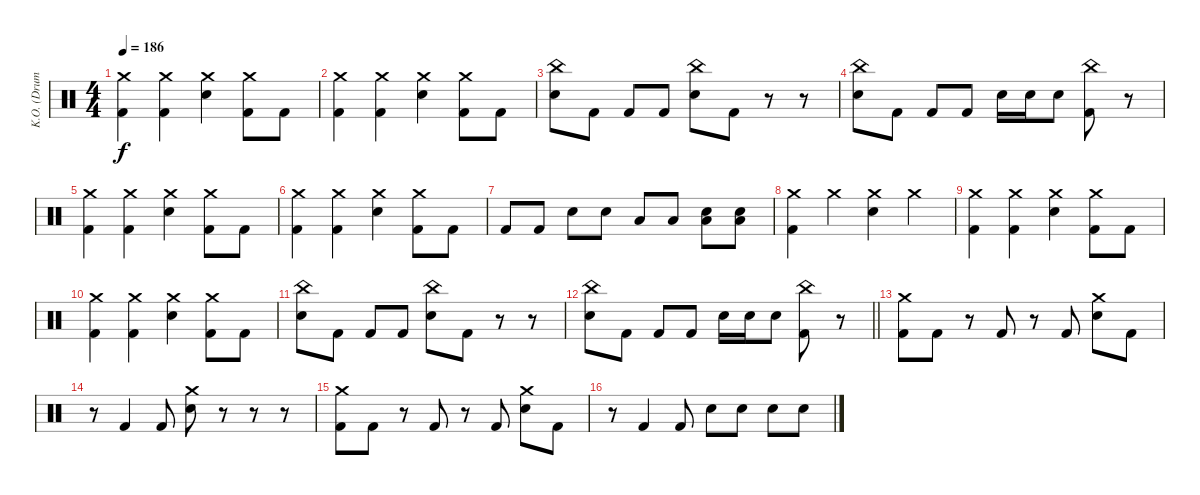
\track ("K.O. (Drums)" "K.O. (Drum") {instrument percussion}
\staff {score}
\articulation defaults
\ts (4 4)
\tempo 186
\clef neutral
\ks c
("Crash medium (hit)" "Kick (hit) 2").4{dy f} ("Crash medium (hit)" "Kick (hit) 2").4 ("Crash medium (hit)" "Electric Snare (hit)").4 ("Crash medium (hit)" "Kick (hit) 2").8 "Kick (hit) 2".8 |
("Crash medium (hit)" "Kick (hit) 2").4 ("Crash medium (hit)" "Kick (hit) 2").4 ("Crash medium (hit)" "Electric Snare (hit)").4 ("Crash medium (hit)" "Kick (hit) 2").8 "Kick (hit) 2".8 |
("China (hit)" "Electric Snare (hit)").8 "Kick (hit) 2".8 "Kick (hit) 2".8 "Kick (hit) 2".8 ("China (hit)" "Electric Snare (hit)").8 "Kick (hit) 2".8 r.8 r.8 |
("China (hit)" "Electric Snare (hit)").8 "Kick (hit) 2".8 "Kick (hit) 2".8 "Kick (hit) 2".8 "Electric Snare (hit)".16 "Electric Snare (hit)".16 "Electric Snare (hit)".8 ("China (hit)" "Kick (hit) 2").8 r.8 |
("Crash medium (hit)" "Kick (hit) 2").4 ("Crash medium (hit)" "Kick (hit) 2").4 ("Crash medium (hit)" "Electric Snare (hit)").4 ("Crash medium (hit)" "Kick (hit) 2").8 "Kick (hit) 2".8 |
("Crash medium (hit)" "Kick (hit) 2").4 ("Crash medium (hit)" "Kick (hit) 2").4 ("Crash medium (hit)" "Electric Snare (hit)").4 ("Crash medium (hit)" "Kick (hit) 2").8 "Kick (hit) 2".8 |
"Kick (hit) 2".8 "Kick (hit) 2".8 "Electric Snare (hit)".8 "Electric Snare (hit)".8 "Low Tom (hit)".8 "Low Tom (hit)".8 ("Low Floor Tom (hit)" "Electric Snare (hit)").8 ("Low Floor Tom (hit)" "Electric Snare (hit)").8 |
("Crash medium (hit)" "Kick (hit) 2").4 "Crash medium (hit)".4 ("Crash medium (hit)" "Electric Snare (hit)").4 "Crash medium (hit)".4 |
("Crash medium (hit)" "Kick (hit) 2").4 ("Crash medium (hit)" "Kick (hit) 2").4 ("Crash medium (hit)" "Electric Snare (hit)").4 ("Crash medium (hit)" "Kick (hit) 2").8 "Kick (hit) 2".8 |
("Crash medium (hit)" "Kick (hit) 2").4 ("Crash medium (hit)" "Kick (hit) 2").4 ("Crash medium (hit)" "Electric Snare (hit)").4 ("Crash medium (hit)" "Kick (hit) 2").8 "Kick (hit) 2".8 |
("China (hit)" "Electric Snare (hit)").8 "Kick (hit) 2".8 "Kick (hit) 2".8 "Kick (hit) 2".8 ("China (hit)" "Electric Snare (hit)").8 "Kick (hit) 2".8 r.8 r.8 |
\barLineRight lightlight
("China (hit)" "Electric Snare (hit)").8 "Kick (hit) 2".8 "Kick (hit) 2".8 "Kick (hit) 2".8 "Electric Snare (hit)".16 "Electric Snare (hit)".16 "Electric Snare (hit)".8 ("China (hit)" "Kick (hit) 2").8 r.8 |
("Crash medium (hit)" "Kick (hit) 2").8 "Kick (hit) 2".8 r.8 "Kick (hit) 2".8 r.8 "Kick (hit) 2".8 ("Crash medium (hit)" "Electric Snare (hit)").8 "Kick (hit) 2".8 |
r.8 "Kick (hit) 2".4 "Kick (hit) 2".8 ("Crash medium (hit)" "Electric Snare (hit)").8 r.8 r.8 r.8 |
("Crash medium (hit)" "Kick (hit) 2").8 "Kick (hit) 2".8 r.8 "Kick (hit) 2".8 r.8 "Kick (hit) 2".8 ("Crash medium (hit)" "Electric Snare (hit)").8 "Kick (hit) 2".8 |
r.8 "Kick (hit) 2".4 "Kick (hit) 2".8 "Electric Snare (hit)".8 "Electric Snare (hit)".8 "Electric Snare (hit)".8 "Electric Snare (hit)".8
